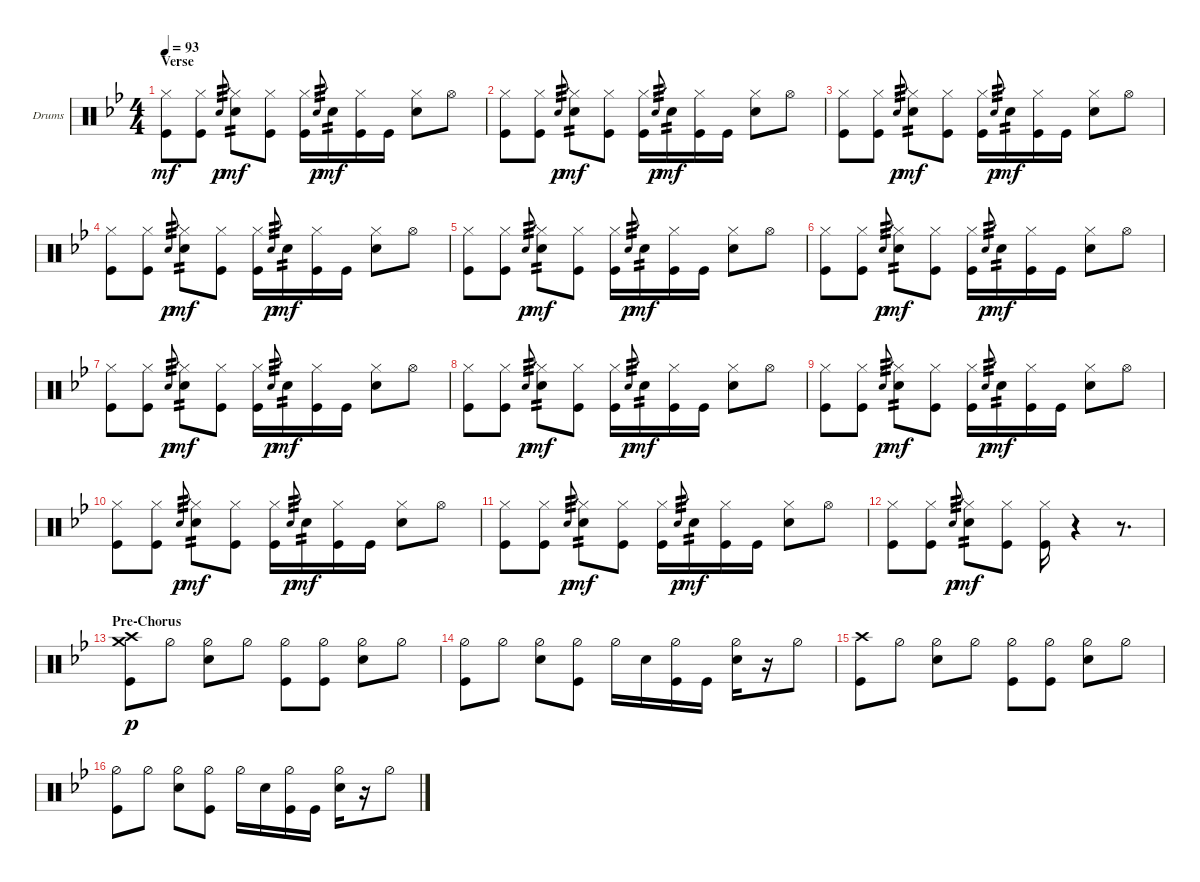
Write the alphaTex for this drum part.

\defaultSystemsLayout 4
\bracketExtendMode groupsimilarinstruments
\firstSystemTrackNameOrientation horizontal
\otherSystemsTrackNameOrientation horizontal
\track ("Drumkit" "Drums") {instrument percussion}
\staff {score}
\articulation defaults
\ts (4 4)
\section ("" "Verse")
\tempo 93
\clef neutral
\ks bb
("Kick (hit)" "Hi-Hat (closed)").8{dy mf} ("Kick (hit)" "Hi-Hat (closed)").8 "Snare (hit) 2".8{gr tp 3 dy p} ("Snare (hit) 2" "Hi-Hat (closed)").8{tp 2 dy mf} ("Hi-Hat (closed)" "Kick (hit)").8 ("Kick (hit)" "Hi-Hat (closed)").16 "Snare (hit) 2".8{gr tp 3 dy p} "Snare (hit) 2".16{tp 2 dy mf} ("Kick (hit)" "Hi-Hat (closed)").16 "Kick (hit)".16 ("Snare (hit) 2" "Hi-Hat (closed)").8 "Hi-Hat (open)".8 |
("Kick (hit)" "Hi-Hat (closed)").8 ("Kick (hit)" "Hi-Hat (closed)").8 "Snare (hit) 2".8{gr tp 3 dy p} ("Snare (hit) 2" "Hi-Hat (closed)").8{tp 2 dy mf} ("Hi-Hat (closed)" "Kick (hit)").8 ("Kick (hit)" "Hi-Hat (closed)").16 "Snare (hit) 2".8{gr tp 3 dy p} "Snare (hit) 2".16{tp 2 dy mf} ("Kick (hit)" "Hi-Hat (closed)").16 "Kick (hit)".16 ("Snare (hit) 2" "Hi-Hat (closed)").8 "Hi-Hat (open)".8 |
("Kick (hit)" "Hi-Hat (closed)").8 ("Kick (hit)" "Hi-Hat (closed)").8 "Snare (hit) 2".8{gr tp 3 dy p} ("Snare (hit) 2" "Hi-Hat (closed)").8{tp 2 dy mf} ("Hi-Hat (closed)" "Kick (hit)").8 ("Kick (hit)" "Hi-Hat (closed)").16 "Snare (hit) 2".8{gr tp 3 dy p} "Snare (hit) 2".16{tp 2 dy mf} ("Kick (hit)" "Hi-Hat (closed)").16 "Kick (hit)".16 ("Snare (hit) 2" "Hi-Hat (closed)").8 "Hi-Hat (open)".8 |
("Kick (hit)" "Hi-Hat (closed)").8 ("Kick (hit)" "Hi-Hat (closed)").8 "Snare (hit) 2".8{gr tp 3 dy p} ("Snare (hit) 2" "Hi-Hat (closed)").8{tp 2 dy mf} ("Hi-Hat (closed)" "Kick (hit)").8 ("Kick (hit)" "Hi-Hat (closed)").16 "Snare (hit) 2".8{gr tp 3 dy p} "Snare (hit) 2".16{tp 2 dy mf} ("Kick (hit)" "Hi-Hat (closed)").16 "Kick (hit)".16 ("Snare (hit) 2" "Hi-Hat (closed)").8 "Hi-Hat (open)".8 |
("Kick (hit)" "Hi-Hat (closed)").8 ("Kick (hit)" "Hi-Hat (closed)").8 "Snare (hit) 2".8{gr tp 3 dy p} ("Snare (hit) 2" "Hi-Hat (closed)").8{tp 2 dy mf} ("Hi-Hat (closed)" "Kick (hit)").8 ("Kick (hit)" "Hi-Hat (closed)").16 "Snare (hit) 2".8{gr tp 3 dy p} "Snare (hit) 2".16{tp 2 dy mf} ("Kick (hit)" "Hi-Hat (closed)").16 "Kick (hit)".16 ("Snare (hit) 2" "Hi-Hat (closed)").8 "Hi-Hat (open)".8 |
("Kick (hit)" "Hi-Hat (closed)").8 ("Kick (hit)" "Hi-Hat (closed)").8 "Snare (hit) 2".8{gr tp 3 dy p} ("Snare (hit) 2" "Hi-Hat (closed)").8{tp 2 dy mf} ("Hi-Hat (closed)" "Kick (hit)").8 ("Kick (hit)" "Hi-Hat (closed)").16 "Snare (hit) 2".8{gr tp 3 dy p} "Snare (hit) 2".16{tp 2 dy mf} ("Kick (hit)" "Hi-Hat (closed)").16 "Kick (hit)".16 ("Snare (hit) 2" "Hi-Hat (closed)").8 "Hi-Hat (open)".8 |
("Kick (hit)" "Hi-Hat (closed)").8 ("Kick (hit)" "Hi-Hat (closed)").8 "Snare (hit) 2".8{gr tp 3 dy p} ("Snare (hit) 2" "Hi-Hat (closed)").8{tp 2 dy mf} ("Hi-Hat (closed)" "Kick (hit)").8 ("Kick (hit)" "Hi-Hat (closed)").16 "Snare (hit) 2".8{gr tp 3 dy p} "Snare (hit) 2".16{tp 2 dy mf} ("Kick (hit)" "Hi-Hat (closed)").16 "Kick (hit)".16 ("Snare (hit) 2" "Hi-Hat (closed)").8 "Hi-Hat (open)".8 |
("Kick (hit)" "Hi-Hat (closed)").8 ("Kick (hit)" "Hi-Hat (closed)").8 "Snare (hit) 2".8{gr tp 3 dy p} ("Snare (hit) 2" "Hi-Hat (closed)").8{tp 2 dy mf} ("Hi-Hat (closed)" "Kick (hit)").8 ("Kick (hit)" "Hi-Hat (closed)").16 "Snare (hit) 2".8{gr tp 3 dy p} "Snare (hit) 2".16{tp 2 dy mf} ("Kick (hit)" "Hi-Hat (closed)").16 "Kick (hit)".16 ("Snare (hit) 2" "Hi-Hat (closed)").8 "Hi-Hat (open)".8 |
("Kick (hit)" "Hi-Hat (closed)").8 ("Kick (hit)" "Hi-Hat (closed)").8 "Snare (hit) 2".8{gr tp 3 dy p} ("Snare (hit) 2" "Hi-Hat (closed)").8{tp 2 dy mf} ("Hi-Hat (closed)" "Kick (hit)").8 ("Kick (hit)" "Hi-Hat (closed)").16 "Snare (hit) 2".8{gr tp 3 dy p} "Snare (hit) 2".16{tp 2 dy mf} ("Kick (hit)" "Hi-Hat (closed)").16 "Kick (hit)".16 ("Snare (hit) 2" "Hi-Hat (closed)").8 "Hi-Hat (open)".8 |
("Kick (hit)" "Hi-Hat (closed)").8 ("Kick (hit)" "Hi-Hat (closed)").8 "Snare (hit) 2".8{gr tp 3 dy p} ("Snare (hit) 2" "Hi-Hat (closed)").8{tp 2 dy mf} ("Hi-Hat (closed)" "Kick (hit)").8 ("Kick (hit)" "Hi-Hat (closed)").16 "Snare (hit) 2".8{gr tp 3 dy p} "Snare (hit) 2".16{tp 2 dy mf} ("Kick (hit)" "Hi-Hat (closed)").16 "Kick (hit)".16 ("Snare (hit) 2" "Hi-Hat (closed)").8 "Hi-Hat (open)".8 |
("Kick (hit)" "Hi-Hat (closed)").8 ("Kick (hit)" "Hi-Hat (closed)").8 "Snare (hit) 2".8{gr tp 3 dy p} ("Snare (hit) 2" "Hi-Hat (closed)").8{tp 2 dy mf} ("Hi-Hat (closed)" "Kick (hit)").8 ("Kick (hit)" "Hi-Hat (closed)").16 "Snare (hit) 2".8{gr tp 3 dy p} "Snare (hit) 2".16{tp 2 dy mf} ("Kick (hit)" "Hi-Hat (closed)").16 "Kick (hit)".16 ("Snare (hit) 2" "Hi-Hat (closed)").8 "Hi-Hat (open)".8 |
("Kick (hit)" "Hi-Hat (closed)").8 ("Kick (hit)" "Hi-Hat (closed)").8 "Snare (hit) 2".8{gr tp 3 dy p} ("Snare (hit) 2" "Hi-Hat (closed)").8{tp 2 dy mf} ("Hi-Hat (closed)" "Kick (hit)").8 ("Kick (hit)" "Hi-Hat (closed)").16 r.4 r.8{d} |
\section ("" "Pre-Chorus")
("Crash high (hit)" "Kick (hit)" "Crash medium (hit)").8{dy p} "Hi-Hat (half)".8 ("Hi-Hat (half)" "Snare (hit) 2").8 "Hi-Hat (half)".8 ("Hi-Hat (half)" "Kick (hit)").8 ("Hi-Hat (half)" "Kick (hit)").8 ("Hi-Hat (half)" "Snare (hit) 2").8 "Hi-Hat (half)".8 |
("Kick (hit)" "Hi-Hat (half)").8 "Hi-Hat (half)".8 ("Hi-Hat (half)" "Snare (hit) 2").8 ("Hi-Hat (half)" "Kick (hit)").8 "Hi-Hat (half)".16 "Snare (hit) 2".16 ("Kick (hit)" "Hi-Hat (half)").16 "Kick (hit)".16 ("Hi-Hat (half)" "Snare (hit) 2").16 r.16 "Hi-Hat (half)".8 |
("Crash high (hit)" "Kick (hit)").8 "Hi-Hat (half)".8 ("Hi-Hat (half)" "Snare (hit) 2").8 "Hi-Hat (half)".8 ("Hi-Hat (half)" "Kick (hit)").8 ("Hi-Hat (half)" "Kick (hit)").8 ("Hi-Hat (half)" "Snare (hit) 2").8 "Hi-Hat (half)".8 |
("Kick (hit)" "Hi-Hat (half)").8 "Hi-Hat (half)".8 ("Hi-Hat (half)" "Snare (hit) 2").8 ("Hi-Hat (half)" "Kick (hit)").8 "Hi-Hat (half)".16 "Snare (hit) 2".16 ("Kick (hit)" "Hi-Hat (half)").16 "Kick (hit)".16 ("Hi-Hat (half)" "Snare (hit) 2").16 r.16 "Hi-Hat (half)".8
